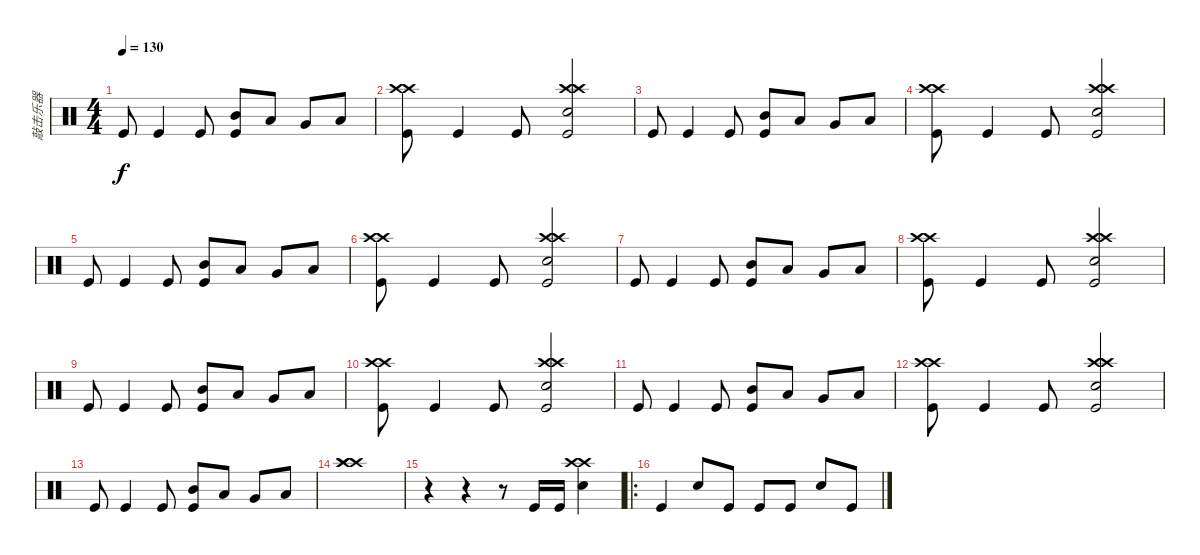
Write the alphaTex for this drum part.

\track ("敲击乐器" "敲击乐器") {instrument percussion}
\staff {score}
\articulation defaults
\ts (4 4)
\tempo 130
\clef neutral
\ks c "Kick (hit)".8{dy f} "Kick (hit)".4 "Kick (hit)".8
("Mid Tom (hit)" "Kick (hit)").8 "Low Tom (hit)".8 "Very Low Tom (hit)".8 "Low Floor Tom (hit)".8 |
("Crash high (hit)" "Crash high (hit)" "Kick (hit)").8 "Kick (hit)".4 "Kick (hit)".8 ("Crash high (hit)" "Crash high (hit)" "Snare (hit) 2" "Kick (hit)").2 |
"Kick (hit)".8 "Kick (hit)".4 "Kick (hit)".8 ("Mid Tom (hit)" "Kick (hit)").8 "Low Tom (hit)".8 "Very Low Tom (hit)".8 "Low Floor Tom (hit)".8 |
("Crash high (hit)" "Crash high (hit)" "Kick (hit)").8 "Kick (hit)".4 "Kick (hit)".8 ("Crash high (hit)" "Crash high (hit)" "Snare (hit) 2" "Kick (hit)").2 |
"Kick (hit)".8 "Kick (hit)".4 "Kick (hit)".8 ("Mid Tom (hit)" "Kick (hit)").8 "Low Tom (hit)".8 "Very Low Tom (hit)".8 "Low Floor Tom (hit)".8 |
("Crash high (hit)" "Crash high (hit)" "Kick (hit)").8 "Kick (hit)".4 "Kick (hit)".8 ("Crash high (hit)" "Crash high (hit)" "Snare (hit) 2" "Kick (hit)").2 |
"Kick (hit)".8 "Kick (hit)".4 "Kick (hit)".8 ("Mid Tom (hit)" "Kick (hit)").8 "Low Tom (hit)".8 "Very Low Tom (hit)".8 "Low Floor Tom (hit)".8 |
("Crash high (hit)" "Crash high (hit)" "Kick (hit)").8 "Kick (hit)".4 "Kick (hit)".8 ("Crash high (hit)" "Crash high (hit)" "Snare (hit) 2" "Kick (hit)").2 |
"Kick (hit)".8 "Kick (hit)".4 "Kick (hit)".8 ("Mid Tom (hit)" "Kick (hit)").8 "Low Tom (hit)".8 "Very Low Tom (hit)".8 "Low Floor Tom (hit)".8 |
("Crash high (hit)" "Crash high (hit)" "Kick (hit)").8 "Kick (hit)".4 "Kick (hit)".8 ("Crash high (hit)" "Crash high (hit)" "Snare (hit) 2" "Kick (hit)").2 |
"Kick (hit)".8 "Kick (hit)".4 "Kick (hit)".8 ("Mid Tom (hit)" "Kick (hit)").8 "Low Tom (hit)".8 "Very Low Tom (hit)".8 "Low Floor Tom (hit)".8 |
("Crash high (hit)" "Crash high (hit)" "Kick (hit)").8 "Kick (hit)".4 "Kick (hit)".8 ("Crash high (hit)" "Crash high (hit)" "Snare (hit) 2" "Kick (hit)").2 |
"Kick (hit)".8 "Kick (hit)".4 "Kick (hit)".8 ("Mid Tom (hit)" "Kick (hit)").8 "Low Tom (hit)".8 "Very Low Tom (hit)".8 "Low Floor Tom (hit)".8 |
("Crash high (hit)" "Crash high (hit)" "Crash high (hit)").1 |
r.4 r.4 r.8 "Kick (hit)".16 "Kick (hit)".16 ("Crash high (hit)" "Crash high (hit)" "Snare (hit) 2").4 |
\ro "Kick (hit)".4 "Snare (hit) 2".8 "Kick (hit)".8 "Kick (hit)".8 "Kick (hit)".8 "Snare (hit) 2".8 "Kick (hit)".8
